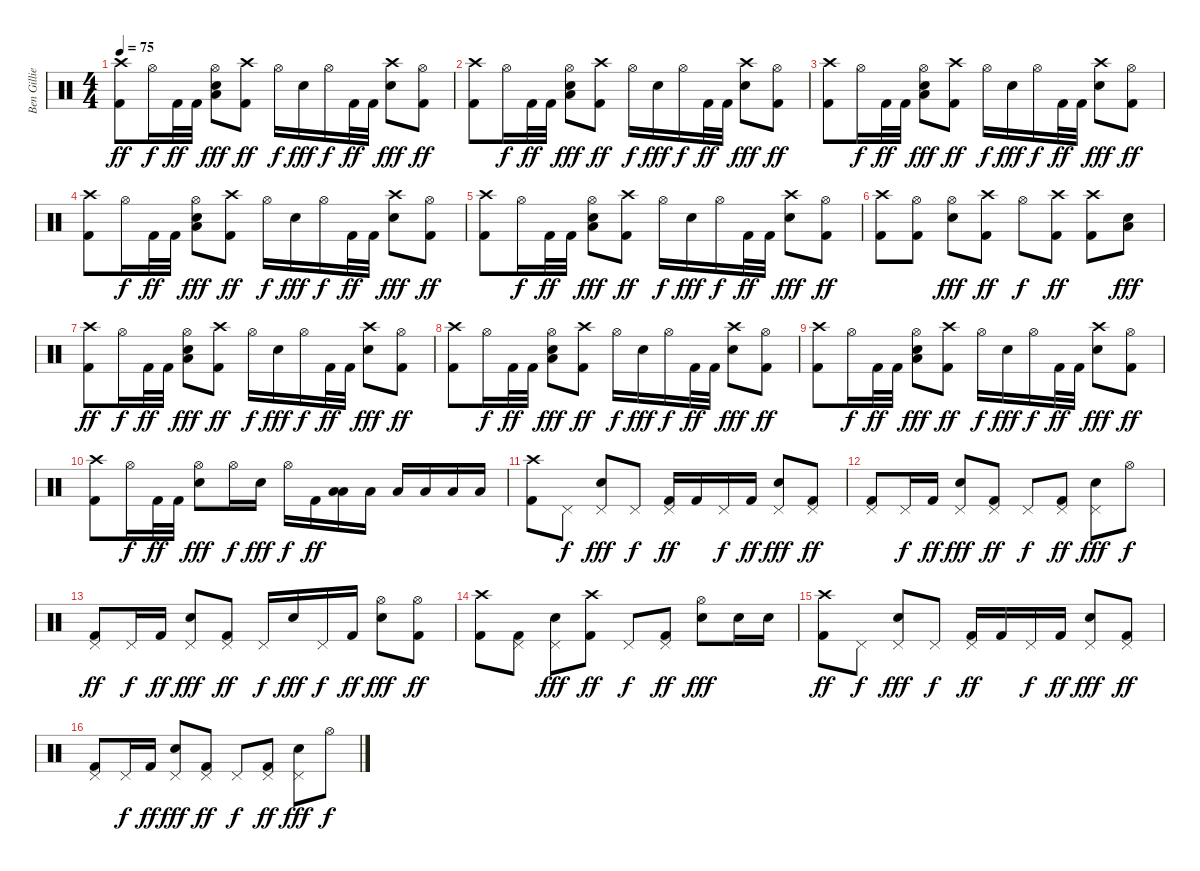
\track ("Ben Gillies" "Ben Gillie") {instrument percussion}
\staff {score}
\articulation defaults
\ts (4 4)
\tempo 75
\clef neutral
\ks c
("Crash high (hit)" "Kick (hit) 2").8{dy ff} "Hi-Hat (open)".16{dy f} "Kick (hit) 2".32{dy ff} "Kick (hit) 2".32 ("Low Floor Tom (hit)" "Hi-Hat (open)" "Electric Snare (hit)").8{dy fff} ("Crash high (hit)" "Kick (hit) 2").8{dy ff} "Hi-Hat (open)".16{dy f} "Electric Snare (hit)".16{dy fff} "Hi-Hat (open)".16{dy f} "Kick (hit) 2".32{dy ff} "Kick (hit) 2".32 ("Crash high (hit)" "Electric Snare (hit)").8{dy fff} ("Hi-Hat (open)" "Kick (hit) 2").8{dy ff} |
("Crash high (hit)" "Kick (hit) 2").8 "Hi-Hat (open)".16{dy f} "Kick (hit) 2".32{dy ff} "Kick (hit) 2".32 ("Low Floor Tom (hit)" "Hi-Hat (open)" "Electric Snare (hit)").8{dy fff} ("Crash high (hit)" "Kick (hit) 2").8{dy ff} "Hi-Hat (open)".16{dy f} "Electric Snare (hit)".16{dy fff} "Hi-Hat (open)".16{dy f} "Kick (hit) 2".32{dy ff} "Kick (hit) 2".32 ("Crash high (hit)" "Electric Snare (hit)").8{dy fff} ("Hi-Hat (open)" "Kick (hit) 2").8{dy ff} |
("Crash high (hit)" "Kick (hit) 2").8 "Hi-Hat (open)".16{dy f} "Kick (hit) 2".32{dy ff} "Kick (hit) 2".32 ("Low Floor Tom (hit)" "Hi-Hat (open)" "Electric Snare (hit)").8{dy fff} ("Crash high (hit)" "Kick (hit) 2").8{dy ff} "Hi-Hat (open)".16{dy f} "Electric Snare (hit)".16{dy fff} "Hi-Hat (open)".16{dy f} "Kick (hit) 2".32{dy ff} "Kick (hit) 2".32 ("Crash high (hit)" "Electric Snare (hit)").8{dy fff} ("Hi-Hat (open)" "Kick (hit) 2").8{dy ff} |
("Crash high (hit)" "Kick (hit) 2").8 "Hi-Hat (open)".16{dy f} "Kick (hit) 2".32{dy ff} "Kick (hit) 2".32 ("Low Floor Tom (hit)" "Hi-Hat (open)" "Electric Snare (hit)").8{dy fff} ("Crash high (hit)" "Kick (hit) 2").8{dy ff} "Hi-Hat (open)".16{dy f} "Electric Snare (hit)".16{dy fff} "Hi-Hat (open)".16{dy f} "Kick (hit) 2".32{dy ff} "Kick (hit) 2".32 ("Crash high (hit)" "Electric Snare (hit)").8{dy fff} ("Hi-Hat (open)" "Kick (hit) 2").8{dy ff} |
("Crash high (hit)" "Kick (hit) 2").8 "Hi-Hat (open)".16{dy f} "Kick (hit) 2".32{dy ff} "Kick (hit) 2".32 ("Low Floor Tom (hit)" "Hi-Hat (open)" "Electric Snare (hit)").8{dy fff} ("Crash high (hit)" "Kick (hit) 2").8{dy ff} "Hi-Hat (open)".16{dy f} "Electric Snare (hit)".16{dy fff} "Hi-Hat (open)".16{dy f} "Kick (hit) 2".32{dy ff} "Kick (hit) 2".32 ("Crash high (hit)" "Electric Snare (hit)").8{dy fff} ("Hi-Hat (open)" "Kick (hit) 2").8{dy ff} |
("Crash high (hit)" "Kick (hit) 2").8 ("Hi-Hat (open)" "Kick (hit) 2").8 ("Hi-Hat (open)" "Electric Snare (hit)").8{dy fff} ("Crash high (hit)" "Kick (hit) 2").8{dy ff} "Hi-Hat (open)".8{dy f} ("Crash high (hit)" "Kick (hit) 2").8{dy ff} ("Crash high (hit)" "Kick (hit) 2").8 ("Low Floor Tom (hit)" "Electric Snare (hit)").8{dy fff} |
("Crash high (hit)" "Kick (hit) 2").8{dy ff} "Hi-Hat (open)".16{dy f} "Kick (hit) 2".32{dy ff} "Kick (hit) 2".32 ("Low Floor Tom (hit)" "Hi-Hat (open)" "Electric Snare (hit)").8{dy fff} ("Crash high (hit)" "Kick (hit) 2").8{dy ff} "Hi-Hat (open)".16{dy f} "Electric Snare (hit)".16{dy fff} "Hi-Hat (open)".16{dy f} "Kick (hit) 2".32{dy ff} "Kick (hit) 2".32 ("Crash high (hit)" "Electric Snare (hit)").8{dy fff} ("Hi-Hat (open)" "Kick (hit) 2").8{dy ff} |
("Crash high (hit)" "Kick (hit) 2").8 "Hi-Hat (open)".16{dy f} "Kick (hit) 2".32{dy ff} "Kick (hit) 2".32 ("Low Floor Tom (hit)" "Hi-Hat (open)" "Electric Snare (hit)").8{dy fff} ("Crash high (hit)" "Kick (hit) 2").8{dy ff} "Hi-Hat (open)".16{dy f} "Electric Snare (hit)".16{dy fff} "Hi-Hat (open)".16{dy f} "Kick (hit) 2".32{dy ff} "Kick (hit) 2".32 ("Crash high (hit)" "Electric Snare (hit)").8{dy fff} ("Hi-Hat (open)" "Kick (hit) 2").8{dy ff} |
("Crash high (hit)" "Kick (hit) 2").8 "Hi-Hat (open)".16{dy f} "Kick (hit) 2".32{dy ff} "Kick (hit) 2".32 ("Low Floor Tom (hit)" "Hi-Hat (open)" "Electric Snare (hit)").8{dy fff} ("Crash high (hit)" "Kick (hit) 2").8{dy ff} "Hi-Hat (open)".16{dy f} "Electric Snare (hit)".16{dy fff} "Hi-Hat (open)".16{dy f} "Kick (hit) 2".32{dy ff} "Kick (hit) 2".32 ("Crash high (hit)" "Electric Snare (hit)").8{dy fff} ("Hi-Hat (open)" "Kick (hit) 2").8{dy ff} |
("Crash high (hit)" "Kick (hit) 2").8 "Hi-Hat (open)".16{dy f} "Kick (hit) 2".32{dy ff} "Kick (hit) 2".32 ("Hi-Hat (open)" "Electric Snare (hit)").8{dy fff} "Hi-Hat (open)".16{dy f} "Electric Snare (hit)".16{dy fff} "Hi-Hat (open)".16{dy f} "Kick (hit) 2".16{dy ff} ("Low Tom (hit)" "Low Tom (hit)").16 "Low Tom (hit)".16 "Low Tom (hit)".16 "Low Tom (hit)".16 "Low Floor Tom (hit)".16 "Low Floor Tom (hit)".16 |
("Crash high (hit)" "Kick (hit) 2").8 "Pedal Hi-Hat (hit)".8{dy f} ("Pedal Hi-Hat (hit)" "Electric Snare (hit)").8{dy fff} "Pedal Hi-Hat (hit)".8{dy f} ("Pedal Hi-Hat (hit)" "Kick (hit) 2").16{dy ff} "Kick (hit) 2".16 "Pedal Hi-Hat (hit)".16{dy f} "Kick (hit) 2".16{dy ff} ("Pedal Hi-Hat (hit)" "Electric Snare (hit)").8{dy fff} ("Pedal Hi-Hat (hit)" "Kick (hit) 2").8{dy ff} |
("Pedal Hi-Hat (hit)" "Kick (hit) 2").8 "Pedal Hi-Hat (hit)".16{dy f} "Kick (hit) 2".16{dy ff} ("Pedal Hi-Hat (hit)" "Electric Snare (hit)").8{dy fff} ("Pedal Hi-Hat (hit)" "Kick (hit) 2").8{dy ff} "Pedal Hi-Hat (hit)".8{dy f} ("Pedal Hi-Hat (hit)" "Kick (hit) 2").8{dy ff} ("Pedal Hi-Hat (hit)" "Electric Snare (hit)").8{dy fff} "Hi-Hat (open)".8{dy f} |
("Pedal Hi-Hat (hit)" "Kick (hit) 2").8{dy ff} "Pedal Hi-Hat (hit)".16{dy f} "Kick (hit) 2".16{dy ff} ("Pedal Hi-Hat (hit)" "Electric Snare (hit)").8{dy fff} ("Pedal Hi-Hat (hit)" "Kick (hit) 2").8{dy ff} "Pedal Hi-Hat (hit)".16{dy f} "Electric Snare (hit)".16{dy fff} "Pedal Hi-Hat (hit)".16{dy f} "Kick (hit) 2".16{dy ff} ("Hi-Hat (open)" "Electric Snare (hit)").8{dy fff} ("Hi-Hat (open)" "Kick (hit) 2").8{dy ff} |
("Crash high (hit)" "Kick (hit) 2").8 ("Pedal Hi-Hat (hit)" "Kick (hit) 2").8 ("Pedal Hi-Hat (hit)" "Electric Snare (hit)").8{dy fff} ("Crash high (hit)" "Kick (hit) 2").8{dy ff} "Pedal Hi-Hat (hit)".8{dy f} ("Pedal Hi-Hat (hit)" "Kick (hit) 2").8{dy ff} ("Hi-Hat (open)" "Electric Snare (hit)").8{dy fff} "Electric Snare (hit)".16 "Electric Snare (hit)".16 |
("Crash high (hit)" "Kick (hit) 2").8{dy ff} "Pedal Hi-Hat (hit)".8{dy f} ("Pedal Hi-Hat (hit)" "Electric Snare (hit)").8{dy fff} "Pedal Hi-Hat (hit)".8{dy f} ("Pedal Hi-Hat (hit)" "Kick (hit) 2").16{dy ff} "Kick (hit) 2".16 "Pedal Hi-Hat (hit)".16{dy f} "Kick (hit) 2".16{dy ff} ("Pedal Hi-Hat (hit)" "Electric Snare (hit)").8{dy fff} ("Pedal Hi-Hat (hit)" "Kick (hit) 2").8{dy ff} |
("Pedal Hi-Hat (hit)" "Kick (hit) 2").8 "Pedal Hi-Hat (hit)".16{dy f} "Kick (hit) 2".16{dy ff} ("Pedal Hi-Hat (hit)" "Electric Snare (hit)").8{dy fff} ("Pedal Hi-Hat (hit)" "Kick (hit) 2").8{dy ff} "Pedal Hi-Hat (hit)".8{dy f} ("Pedal Hi-Hat (hit)" "Kick (hit) 2").8{dy ff} ("Pedal Hi-Hat (hit)" "Electric Snare (hit)").8{dy fff} "Hi-Hat (open)".8{dy f}
